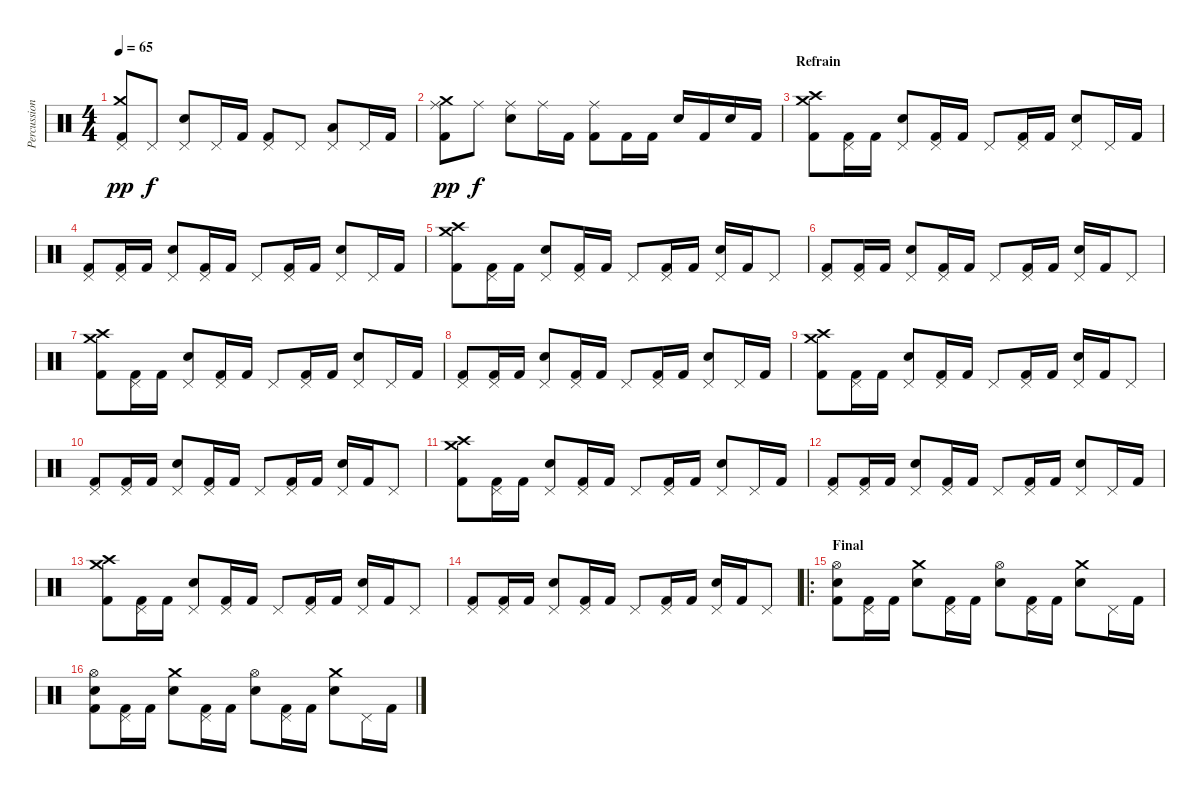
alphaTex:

\track ("Percussions" "Percussion") {instrument percussion}
\staff {score}
\articulation defaults
\ts (4 4)
\tempo 65
\clef neutral
\ks c
("Pedal Hi-Hat (hit)" "Crash medium (hit)" "Kick (hit) 2").8{dy pp} "Pedal Hi-Hat (hit)".8{dy f} ("Pedal Hi-Hat (hit)" "Electric Snare (hit)").8 "Pedal Hi-Hat (hit)".16 "Kick (hit) 2".16 ("Pedal Hi-Hat (hit)" "Kick (hit) 2").8 "Pedal Hi-Hat (hit)".8 ("Pedal Hi-Hat (hit)" "Low Tom (hit)").8 "Pedal Hi-Hat (hit)".16 "Kick (hit) 2".16 |
("Ride (middle)" "Crash medium (hit)" "Kick (hit) 2").8{dy pp} "Ride (middle)".8{dy f} ("Ride (middle)" "Electric Snare (hit)").8 "Ride (middle)".16 "Kick (hit) 2".16 ("Ride (middle)" "Kick (hit) 2").8 "Kick (hit) 2".16 "Kick (hit) 2".16 "Snare (hit) 2".16 "Kick (hit) 2".16 "Snare (hit) 2".16 "Kick (hit) 2".16 |
\section ("" "Refrain")
("Crash high (hit)" "Crash medium (hit)" "Kick (hit) 2").8 ("Pedal Hi-Hat (hit)" "Kick (hit) 2").16 "Kick (hit) 2".16 ("Pedal Hi-Hat (hit)" "Electric Snare (hit)").8 ("Pedal Hi-Hat (hit)" "Kick (hit) 2").16 "Kick (hit) 2".16 "Pedal Hi-Hat (hit)".8 ("Pedal Hi-Hat (hit)" "Kick (hit) 2").16 "Kick (hit) 2".16 ("Pedal Hi-Hat (hit)" "Electric Snare (hit)").8 "Pedal Hi-Hat (hit)".16 "Kick (hit) 2".16 |
("Pedal Hi-Hat (hit)" "Kick (hit) 2").8 ("Pedal Hi-Hat (hit)" "Kick (hit) 2").16 "Kick (hit) 2".16 ("Pedal Hi-Hat (hit)" "Electric Snare (hit)").8 ("Pedal Hi-Hat (hit)" "Kick (hit) 2").16 "Kick (hit) 2".16 "Pedal Hi-Hat (hit)".8 ("Pedal Hi-Hat (hit)" "Kick (hit) 2").16 "Kick (hit) 2".16 ("Pedal Hi-Hat (hit)" "Electric Snare (hit)").8 "Pedal Hi-Hat (hit)".16 "Kick (hit) 2".16 |
("Crash high (hit)" "Crash medium (hit)" "Kick (hit) 2").8 ("Pedal Hi-Hat (hit)" "Kick (hit) 2").16 "Kick (hit) 2".16 ("Pedal Hi-Hat (hit)" "Electric Snare (hit)").8 ("Pedal Hi-Hat (hit)" "Kick (hit) 2").16 "Kick (hit) 2".16 "Pedal Hi-Hat (hit)".8 ("Pedal Hi-Hat (hit)" "Kick (hit) 2").16 "Kick (hit) 2".16 ("Pedal Hi-Hat (hit)" "Electric Snare (hit)").16 "Kick (hit) 2".16 "Pedal Hi-Hat (hit)".8 |
("Pedal Hi-Hat (hit)" "Kick (hit) 2").8 ("Pedal Hi-Hat (hit)" "Kick (hit) 2").16 "Kick (hit) 2".16 ("Pedal Hi-Hat (hit)" "Electric Snare (hit)").8 ("Pedal Hi-Hat (hit)" "Kick (hit) 2").16 "Kick (hit) 2".16 "Pedal Hi-Hat (hit)".8 ("Pedal Hi-Hat (hit)" "Kick (hit) 2").16 "Kick (hit) 2".16 ("Pedal Hi-Hat (hit)" "Electric Snare (hit)").16 "Kick (hit) 2".16 "Pedal Hi-Hat (hit)".8 |
("Crash high (hit)" "Crash medium (hit)" "Kick (hit) 2").8 ("Pedal Hi-Hat (hit)" "Kick (hit) 2").16 "Kick (hit) 2".16 ("Pedal Hi-Hat (hit)" "Electric Snare (hit)").8 ("Pedal Hi-Hat (hit)" "Kick (hit) 2").16 "Kick (hit) 2".16 "Pedal Hi-Hat (hit)".8 ("Pedal Hi-Hat (hit)" "Kick (hit) 2").16 "Kick (hit) 2".16 ("Pedal Hi-Hat (hit)" "Electric Snare (hit)").8 "Pedal Hi-Hat (hit)".16 "Kick (hit) 2".16 |
("Pedal Hi-Hat (hit)" "Kick (hit) 2").8 ("Pedal Hi-Hat (hit)" "Kick (hit) 2").16 "Kick (hit) 2".16 ("Pedal Hi-Hat (hit)" "Electric Snare (hit)").8 ("Pedal Hi-Hat (hit)" "Kick (hit) 2").16 "Kick (hit) 2".16 "Pedal Hi-Hat (hit)".8 ("Pedal Hi-Hat (hit)" "Kick (hit) 2").16 "Kick (hit) 2".16 ("Pedal Hi-Hat (hit)" "Electric Snare (hit)").8 "Pedal Hi-Hat (hit)".16 "Kick (hit) 2".16 |
("Crash high (hit)" "Crash medium (hit)" "Kick (hit) 2").8 ("Pedal Hi-Hat (hit)" "Kick (hit) 2").16 "Kick (hit) 2".16 ("Pedal Hi-Hat (hit)" "Electric Snare (hit)").8 ("Pedal Hi-Hat (hit)" "Kick (hit) 2").16 "Kick (hit) 2".16 "Pedal Hi-Hat (hit)".8 ("Pedal Hi-Hat (hit)" "Kick (hit) 2").16 "Kick (hit) 2".16 ("Pedal Hi-Hat (hit)" "Electric Snare (hit)").16 "Kick (hit) 2".16 "Pedal Hi-Hat (hit)".8 |
("Pedal Hi-Hat (hit)" "Kick (hit) 2").8 ("Pedal Hi-Hat (hit)" "Kick (hit) 2").16 "Kick (hit) 2".16 ("Pedal Hi-Hat (hit)" "Electric Snare (hit)").8 ("Pedal Hi-Hat (hit)" "Kick (hit) 2").16 "Kick (hit) 2".16 "Pedal Hi-Hat (hit)".8 ("Pedal Hi-Hat (hit)" "Kick (hit) 2").16 "Kick (hit) 2".16 ("Pedal Hi-Hat (hit)" "Electric Snare (hit)").16 "Kick (hit) 2".16 "Pedal Hi-Hat (hit)".8 |
("Crash high (hit)" "Crash medium (hit)" "Kick (hit) 2").8 ("Pedal Hi-Hat (hit)" "Kick (hit) 2").16 "Kick (hit) 2".16 ("Pedal Hi-Hat (hit)" "Electric Snare (hit)").8 ("Pedal Hi-Hat (hit)" "Kick (hit) 2").16 "Kick (hit) 2".16 "Pedal Hi-Hat (hit)".8 ("Pedal Hi-Hat (hit)" "Kick (hit) 2").16 "Kick (hit) 2".16 ("Pedal Hi-Hat (hit)" "Electric Snare (hit)").8 "Pedal Hi-Hat (hit)".16 "Kick (hit) 2".16 |
("Pedal Hi-Hat (hit)" "Kick (hit) 2").8 ("Pedal Hi-Hat (hit)" "Kick (hit) 2").16 "Kick (hit) 2".16 ("Pedal Hi-Hat (hit)" "Electric Snare (hit)").8 ("Pedal Hi-Hat (hit)" "Kick (hit) 2").16 "Kick (hit) 2".16 "Pedal Hi-Hat (hit)".8 ("Pedal Hi-Hat (hit)" "Kick (hit) 2").16 "Kick (hit) 2".16 ("Pedal Hi-Hat (hit)" "Electric Snare (hit)").8 "Pedal Hi-Hat (hit)".16 "Kick (hit) 2".16 |
("Crash high (hit)" "Crash medium (hit)" "Kick (hit) 2").8 ("Pedal Hi-Hat (hit)" "Kick (hit) 2").16 "Kick (hit) 2".16 ("Pedal Hi-Hat (hit)" "Electric Snare (hit)").8 ("Pedal Hi-Hat (hit)" "Kick (hit) 2").16 "Kick (hit) 2".16 "Pedal Hi-Hat (hit)".8 ("Pedal Hi-Hat (hit)" "Kick (hit) 2").16 "Kick (hit) 2".16 ("Pedal Hi-Hat (hit)" "Electric Snare (hit)").16 "Kick (hit) 2".16 "Pedal Hi-Hat (hit)".8 |
("Pedal Hi-Hat (hit)" "Kick (hit) 2").8 ("Pedal Hi-Hat (hit)" "Kick (hit) 2").16 "Kick (hit) 2".16 ("Pedal Hi-Hat (hit)" "Electric Snare (hit)").8 ("Pedal Hi-Hat (hit)" "Kick (hit) 2").16 "Kick (hit) 2".16 "Pedal Hi-Hat (hit)".8 ("Pedal Hi-Hat (hit)" "Kick (hit) 2").16 "Kick (hit) 2".16 ("Pedal Hi-Hat (hit)" "Electric Snare (hit)").16 "Kick (hit) 2".16 "Pedal Hi-Hat (hit)".8 |
\ro
\section ("" "Final")
("Hi-Hat (open)" "Electric Snare (hit)" "Kick (hit) 2").8 ("Pedal Hi-Hat (hit)" "Kick (hit) 2").16 "Kick (hit) 2".16 ("Crash medium (hit)" "Electric Snare (hit)").8 ("Pedal Hi-Hat (hit)" "Kick (hit) 2").16 "Kick (hit) 2".16 ("Hi-Hat (open)" "Electric Snare (hit)").8 ("Pedal Hi-Hat (hit)" "Kick (hit) 2").16 "Kick (hit) 2".16 ("Crash medium (hit)" "Electric Snare (hit)").8 "Pedal Hi-Hat (hit)".16 "Kick (hit) 2".16 |
("Hi-Hat (open)" "Electric Snare (hit)" "Kick (hit) 2").8 ("Pedal Hi-Hat (hit)" "Kick (hit) 2").16 "Kick (hit) 2".16 ("Crash medium (hit)" "Electric Snare (hit)").8 ("Pedal Hi-Hat (hit)" "Kick (hit) 2").16 "Kick (hit) 2".16 ("Hi-Hat (open)" "Electric Snare (hit)").8 ("Pedal Hi-Hat (hit)" "Kick (hit) 2").16 "Kick (hit) 2".16 ("Crash medium (hit)" "Electric Snare (hit)").8 "Pedal Hi-Hat (hit)".16 "Kick (hit) 2".16
